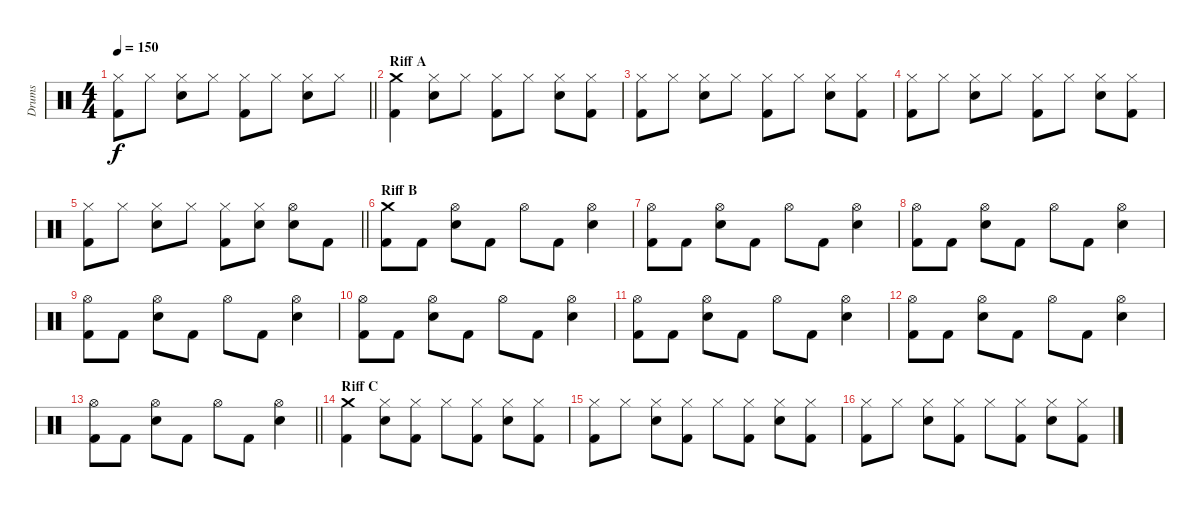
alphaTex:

\track ("Drums" "Drums") {instrument percussion}
\staff {score}
\articulation defaults
\ts (4 4)
\tempo 150
\clef neutral
\barLineRight lightlight
\ks c
("Hi-Hat (closed)" "Kick (hit) 2").8{dy f} "Hi-Hat (closed)".8 ("Hi-Hat (closed)" "Electric Snare (hit)").8 "Hi-Hat (closed)".8 ("Hi-Hat (closed)" "Kick (hit) 2").8 "Hi-Hat (closed)".8 ("Hi-Hat (closed)" "Electric Snare (hit)").8 "Hi-Hat (closed)".8 |
\section ("" "Riff A")
("Crash medium (hit)" "Kick (hit) 2").4 ("Hi-Hat (closed)" "Electric Snare (hit)").8 "Hi-Hat (closed)".8 ("Hi-Hat (closed)" "Kick (hit) 2").8 "Hi-Hat (closed)".8 ("Hi-Hat (closed)" "Electric Snare (hit)").8 ("Hi-Hat (closed)" "Kick (hit) 2").8 |
("Hi-Hat (closed)" "Kick (hit) 2").8 "Hi-Hat (closed)".8 ("Hi-Hat (closed)" "Electric Snare (hit)").8 "Hi-Hat (closed)".8 ("Hi-Hat (closed)" "Kick (hit) 2").8 "Hi-Hat (closed)".8 ("Hi-Hat (closed)" "Electric Snare (hit)").8 ("Hi-Hat (closed)" "Kick (hit) 2").8 |
("Hi-Hat (closed)" "Kick (hit) 2").8 "Hi-Hat (closed)".8 ("Hi-Hat (closed)" "Electric Snare (hit)").8 "Hi-Hat (closed)".8 ("Hi-Hat (closed)" "Kick (hit) 2").8 "Hi-Hat (closed)".8 ("Hi-Hat (closed)" "Electric Snare (hit)").8 ("Hi-Hat (closed)" "Kick (hit) 2").8 |
\barLineRight lightlight
("Hi-Hat (closed)" "Kick (hit) 2").8 "Hi-Hat (closed)".8 ("Hi-Hat (closed)" "Electric Snare (hit)").8 "Hi-Hat (closed)".8 ("Hi-Hat (closed)" "Kick (hit) 2").8 ("Hi-Hat (closed)" "Electric Snare (hit)").8 ("Hi-Hat (open)" "Electric Snare (hit)").8 "Kick (hit) 2".8 |
\section ("" "Riff B")
("Crash medium (hit)" "Kick (hit) 2").8 "Kick (hit) 2".8 ("Hi-Hat (open)" "Electric Snare (hit)").8 "Kick (hit) 2".8 "Hi-Hat (open)".8 "Kick (hit) 2".8 ("Hi-Hat (open)" "Electric Snare (hit)").4 |
("Hi-Hat (open)" "Kick (hit) 2").8 "Kick (hit) 2".8 ("Hi-Hat (open)" "Electric Snare (hit)").8 "Kick (hit) 2".8 "Hi-Hat (open)".8 "Kick (hit) 2".8 ("Hi-Hat (open)" "Electric Snare (hit)").4 |
("Hi-Hat (open)" "Kick (hit) 2").8 "Kick (hit) 2".8 ("Hi-Hat (open)" "Electric Snare (hit)").8 "Kick (hit) 2".8 "Hi-Hat (open)".8 "Kick (hit) 2".8 ("Hi-Hat (open)" "Electric Snare (hit)").4 |
("Hi-Hat (open)" "Kick (hit) 2").8 "Kick (hit) 2".8 ("Hi-Hat (open)" "Electric Snare (hit)").8 "Kick (hit) 2".8 "Hi-Hat (open)".8 "Kick (hit) 2".8 ("Hi-Hat (open)" "Electric Snare (hit)").4 |
("Hi-Hat (open)" "Kick (hit) 2").8 "Kick (hit) 2".8 ("Hi-Hat (open)" "Electric Snare (hit)").8 "Kick (hit) 2".8 "Hi-Hat (open)".8 "Kick (hit) 2".8 ("Hi-Hat (open)" "Electric Snare (hit)").4 |
("Hi-Hat (open)" "Kick (hit) 2").8 "Kick (hit) 2".8 ("Hi-Hat (open)" "Electric Snare (hit)").8 "Kick (hit) 2".8 "Hi-Hat (open)".8 "Kick (hit) 2".8 ("Hi-Hat (open)" "Electric Snare (hit)").4 |
("Hi-Hat (open)" "Kick (hit) 2").8 "Kick (hit) 2".8 ("Hi-Hat (open)" "Electric Snare (hit)").8 "Kick (hit) 2".8 "Hi-Hat (open)".8 "Kick (hit) 2".8 ("Hi-Hat (open)" "Electric Snare (hit)").4 |
\barLineRight lightlight
("Hi-Hat (open)" "Kick (hit) 2").8 "Kick (hit) 2".8 ("Hi-Hat (open)" "Electric Snare (hit)").8 "Kick (hit) 2".8 "Hi-Hat (open)".8 "Kick (hit) 2".8 ("Hi-Hat (open)" "Electric Snare (hit)").4 |
\section ("" "Riff C")
("Crash medium (hit)" "Kick (hit) 2").4 ("Hi-Hat (closed)" "Electric Snare (hit)").8 ("Hi-Hat (closed)" "Kick (hit) 2").8 "Hi-Hat (closed)".8 ("Hi-Hat (closed)" "Kick (hit) 2").8 ("Hi-Hat (closed)" "Electric Snare (hit)").8 ("Hi-Hat (closed)" "Kick (hit) 2").8 |
("Hi-Hat (closed)" "Kick (hit) 2").8 "Hi-Hat (closed)".8 ("Hi-Hat (closed)" "Electric Snare (hit)").8 ("Hi-Hat (closed)" "Kick (hit) 2").8 "Hi-Hat (closed)".8 ("Hi-Hat (closed)" "Kick (hit) 2").8 ("Hi-Hat (closed)" "Electric Snare (hit)").8 ("Hi-Hat (closed)" "Kick (hit) 2").8 |
("Hi-Hat (closed)" "Kick (hit) 2").8 "Hi-Hat (closed)".8 ("Hi-Hat (closed)" "Electric Snare (hit)").8 ("Hi-Hat (closed)" "Kick (hit) 2").8 "Hi-Hat (closed)".8 ("Hi-Hat (closed)" "Kick (hit) 2").8 ("Hi-Hat (closed)" "Electric Snare (hit)").8 ("Hi-Hat (closed)" "Kick (hit) 2").8
